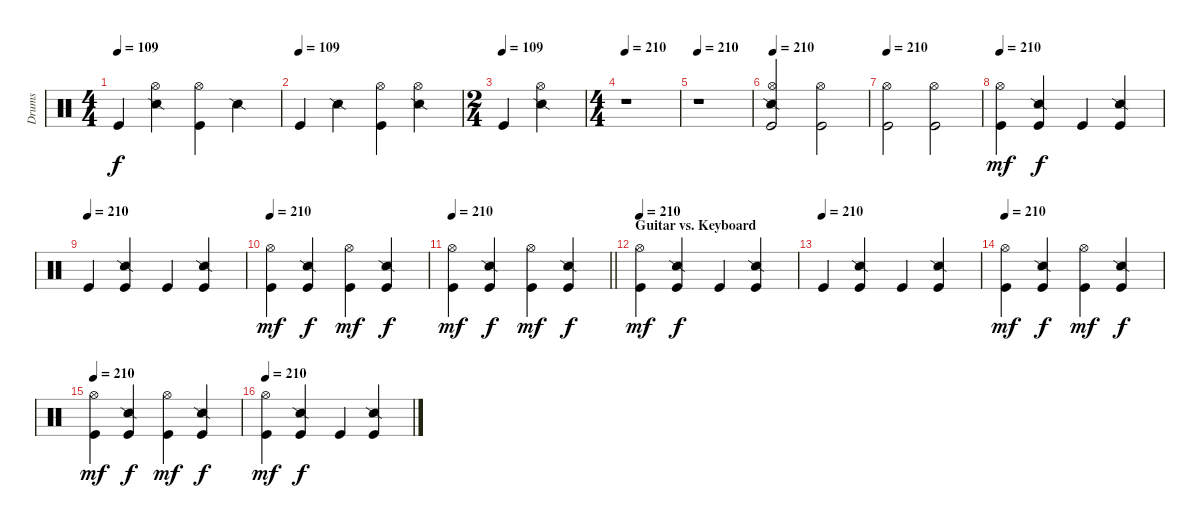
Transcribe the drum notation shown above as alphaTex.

\track ("Drums" "Drums") {instrument percussion}
\staff {score}
\articulation defaults
\ts (4 4)
\tempo 109
\clef neutral
\ks c "Kick (hit)".4{dy f}
("Hi-Hat (open)" "Snare (side stick) 2").4 ("Hi-Hat (open)" "Kick (hit)").4 "Snare (side stick) 2".4 |
\tempo (109)
"Kick (hit)".4 "Snare (side stick) 2".4 ("Hi-Hat (open)" "Kick (hit)").4 ("Hi-Hat (open)" "Snare (side stick) 2").4 |
\ts (2 4)
\tempo (109)
"Kick (hit)".4 ("Hi-Hat (open)" "Snare (side stick) 2").4 |
\ts (4 4)
\tempo 210
r.1 |
\tempo 210
r.1 |
\tempo 210
("Hi-Hat (open)" "Snare (side stick) 2" "Kick (hit)").2 ("Hi-Hat (open)" "Kick (hit)").2 |
\tempo 210
("Hi-Hat (open)" "Kick (hit)").2 ("Hi-Hat (open)" "Kick (hit)").2 |
\tempo 210
("Hi-Hat (open)" "Kick (hit)").4{dy mf} ("Snare (side stick) 2" "Kick (hit)").4{dy f} "Kick (hit)".4 ("Snare (side stick) 2" "Kick (hit)").4 |
\tempo (210)
"Kick (hit)".4 ("Snare (side stick) 2" "Kick (hit)").4 "Kick (hit)".4 ("Snare (side stick) 2" "Kick (hit)").4 |
\tempo 210
("Hi-Hat (open)" "Kick (hit)").4{dy mf} ("Snare (side stick) 2" "Kick (hit)").4{dy f} ("Hi-Hat (open)" "Kick (hit)").4{dy mf} ("Snare (side stick) 2" "Kick (hit)").4{dy f} |
\tempo 210
\barLineRight lightlight
("Hi-Hat (open)" "Kick (hit)").4{dy mf} ("Snare (side stick) 2" "Kick (hit)").4{dy f} ("Hi-Hat (open)" "Kick (hit)").4{dy mf} ("Snare (side stick) 2" "Kick (hit)").4{dy f} |
\section ("" "Guitar vs. Keyboard")
\tempo 210
("Hi-Hat (open)" "Kick (hit)").4{dy mf} ("Snare (side stick) 2" "Kick (hit)").4{dy f} "Kick (hit)".4 ("Snare (side stick) 2" "Kick (hit)").4 |
\tempo (210)
"Kick (hit)".4 ("Snare (side stick) 2" "Kick (hit)").4 "Kick (hit)".4 ("Snare (side stick) 2" "Kick (hit)").4 |
\tempo 210
("Hi-Hat (open)" "Kick (hit)").4{dy mf} ("Snare (side stick) 2" "Kick (hit)").4{dy f} ("Hi-Hat (open)" "Kick (hit)").4{dy mf} ("Snare (side stick) 2" "Kick (hit)").4{dy f} |
\tempo 210
("Hi-Hat (open)" "Kick (hit)").4{dy mf} ("Snare (side stick) 2" "Kick (hit)").4{dy f} ("Hi-Hat (open)" "Kick (hit)").4{dy mf} ("Snare (side stick) 2" "Kick (hit)").4{dy f} |
\tempo 210
("Hi-Hat (open)" "Kick (hit)").4{dy mf} ("Snare (side stick) 2" "Kick (hit)").4{dy f} "Kick (hit)".4 ("Snare (side stick) 2" "Kick (hit)").4
